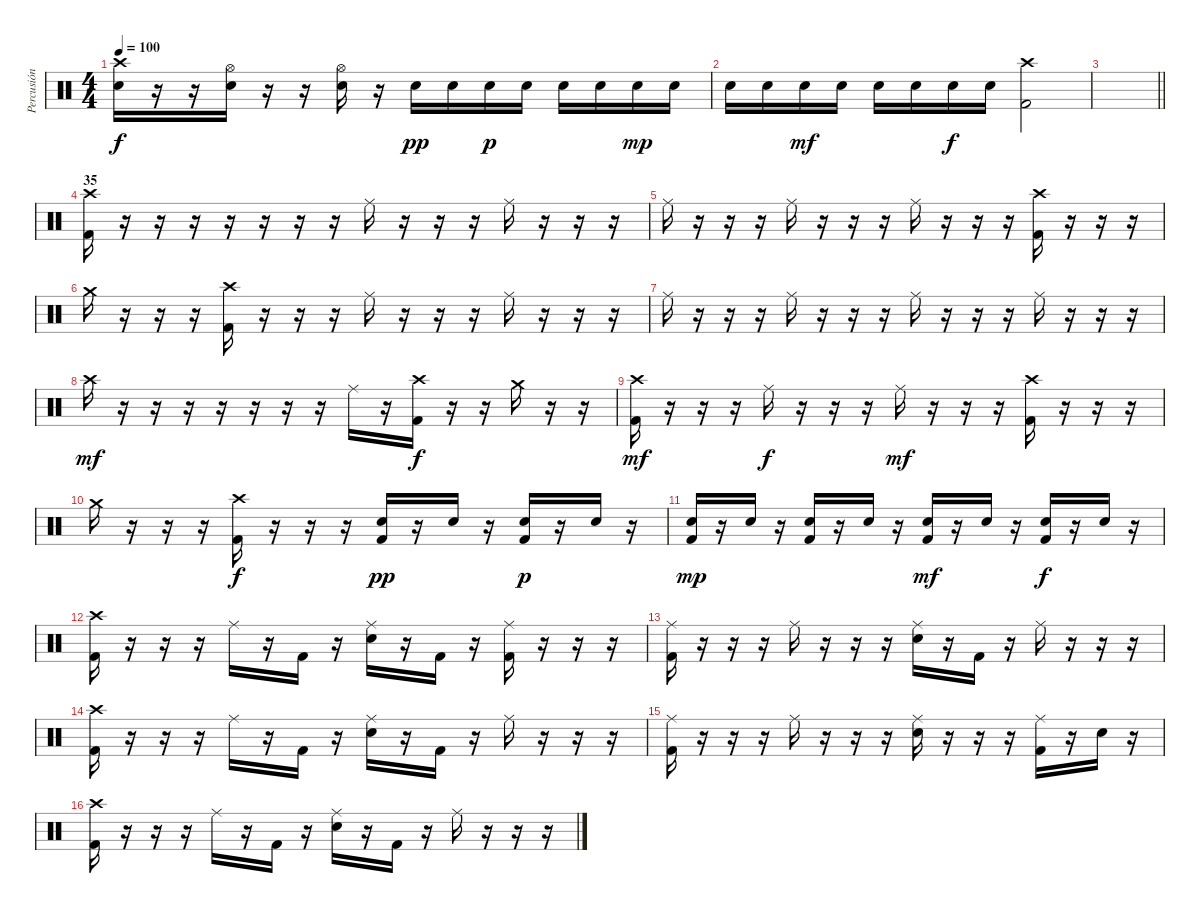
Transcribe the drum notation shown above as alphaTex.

\track ("Percusión" "Percusión") {instrument percussion}
\staff {score}
\articulation defaults
\ts (4 4)
\tempo 100
\clef neutral
\ks c
("Crash high (hit)" "Electric Snare (hit)").16{dy f} r.16 r.16 ("Hi-Hat (open)" "Electric Snare (hit)").16 r.16 r.16 ("Hi-Hat (open)" "Electric Snare (hit)").16 r.16 "Electric Snare (hit)".16{dy pp} "Electric Snare (hit)".16 "Electric Snare (hit)".16{dy p} "Electric Snare (hit)".16 "Electric Snare (hit)".16 "Electric Snare (hit)".16 "Electric Snare (hit)".16{dy mp} "Electric Snare (hit)".16 |
"Electric Snare (hit)".16 "Electric Snare (hit)".16 "Electric Snare (hit)".16{dy mf} "Electric Snare (hit)".16 "Electric Snare (hit)".16 "Electric Snare (hit)".16 "Electric Snare (hit)".16{dy f} "Electric Snare (hit)".16 ("Crash high (hit)" "Kick (hit) 2").2 |
\barLineRight lightlight
|
\section ("" "35")
("Crash high (hit)" "Kick (hit) 2").16 r.16 r.16 r.16 r.16 r.16 r.16 r.16 "Ride (middle)".16 r.16 r.16 r.16 "Ride (middle)".16 r.16 r.16 r.16 |
"Ride (middle)".16 r.16 r.16 r.16 "Ride (middle)".16 r.16 r.16 r.16 "Ride (middle)".16 r.16 r.16 r.16 ("Crash high (hit)" "Kick (hit) 2").16 r.16 r.16 r.16 |
"Crash medium (hit)".16 r.16 r.16 r.16 ("Crash high (hit)" "Kick (hit) 2").16 r.16 r.16 r.16 "Ride (middle)".16 r.16 r.16 r.16 "Ride (middle)".16 r.16 r.16 r.16 |
"Ride (middle)".16 r.16 r.16 r.16 "Ride (middle)".16 r.16 r.16 r.16 "Ride (middle)".16 r.16 r.16 r.16 "Ride (middle)".16 r.16 r.16 r.16 |
"Crash high (hit)".16{dy mf} r.16 r.16 r.16 r.16 r.16 r.16 r.16 "Ride (middle)".16 r.16 ("Crash high (hit)" "Kick (hit) 2").16{dy f} r.16 r.16 "Crash medium (hit)".16 r.16 r.16 |
("Crash high (hit)" "Kick (hit) 2").16{dy mf} r.16 r.16 r.16 "Ride (middle)".16{dy f} r.16 r.16 r.16 "Ride (middle)".16{dy mf} r.16 r.16 r.16 ("Crash high (hit)" "Kick (hit) 2").16 r.16 r.16 r.16 |
"Crash medium (hit)".16 r.16 r.16 r.16 ("Crash high (hit)" "Kick (hit) 2").16{dy f} r.16 r.16 r.16 ("Electric Snare (hit)" "Kick (hit) 2").16{dy pp} r.16 "Electric Snare (hit)".16 r.16 ("Electric Snare (hit)" "Kick (hit) 2").16{dy p} r.16 "Electric Snare (hit)".16 r.16 |
("Electric Snare (hit)" "Kick (hit) 2").16{dy mp} r.16 "Electric Snare (hit)".16 r.16 ("Electric Snare (hit)" "Kick (hit) 2").16 r.16 "Electric Snare (hit)".16 r.16 ("Electric Snare (hit)" "Kick (hit) 2").16{dy mf} r.16 "Electric Snare (hit)".16 r.16 ("Electric Snare (hit)" "Kick (hit) 2").16{dy f} r.16 "Electric Snare (hit)".16 r.16 |
("Crash high (hit)" "Kick (hit) 2").16 r.16 r.16 r.16 "Ride (middle)".16 r.16 "Kick (hit) 2".16 r.16 ("Ride (middle)" "Electric Snare (hit)").16 r.16 "Kick (hit) 2".16 r.16 ("Ride (middle)" "Kick (hit) 2").16 r.16 r.16 r.16 |
("Ride (middle)" "Kick (hit) 2").16 r.16 r.16 r.16 "Ride (middle)".16 r.16 r.16 r.16 ("Ride (middle)" "Electric Snare (hit)").16 r.16 "Kick (hit) 2".16 r.16 "Ride (middle)".16 r.16 r.16 r.16 |
("Crash high (hit)" "Kick (hit) 2").16 r.16 r.16 r.16 "Ride (middle)".16 r.16 "Kick (hit) 2".16 r.16 ("Ride (middle)" "Electric Snare (hit)").16 r.16 "Kick (hit) 2".16 r.16 "Ride (middle)".16 r.16 r.16 r.16 |
("Ride (middle)" "Kick (hit) 2").16 r.16 r.16 r.16 "Ride (middle)".16 r.16 r.16 r.16 ("Ride (middle)" "Electric Snare (hit)").16 r.16 r.16 r.16 ("Ride (middle)" "Kick (hit) 2").16 r.16 "Electric Snare (hit)".16 r.16 |
("Crash high (hit)" "Kick (hit) 2").16 r.16 r.16 r.16 "Ride (middle)".16 r.16 "Kick (hit) 2".16 r.16 ("Ride (middle)" "Electric Snare (hit)").16 r.16 "Kick (hit) 2".16 r.16 "Ride (middle)".16 r.16 r.16 r.16
